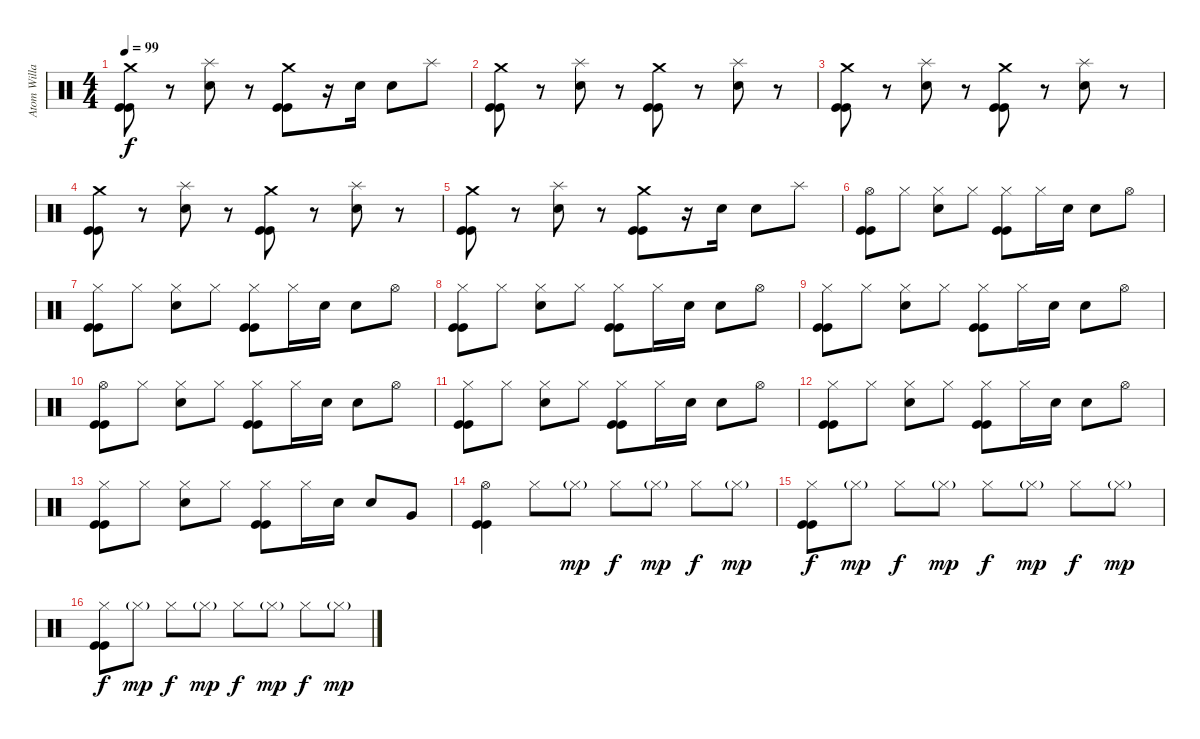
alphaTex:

\track ("Atom Willard" "Atom Willa") {instrument percussion}
\staff {score}
\articulation defaults
\ts (4 4)
\tempo 99
\clef neutral
\ks c
("Crash medium (hit)" "Kick (hit)" "Kick (hit)").8{dy f} r.8 ("Splash (hit)" "Electric Snare (hit)").8 r.8 ("Crash medium (hit)" "Kick (hit)" "Kick (hit)").8 r.16 "Electric Snare (hit)".16 "Electric Snare (hit)".8 "Splash (hit)".8 |
("Crash medium (hit)" "Kick (hit)" "Kick (hit)").8 r.8 ("Splash (hit)" "Electric Snare (hit)").8 r.8 ("Crash medium (hit)" "Kick (hit)" "Kick (hit)").8 r.8 ("Splash (hit)" "Electric Snare (hit)").8 r.8 |
("Crash medium (hit)" "Kick (hit)" "Kick (hit)").8 r.8 ("Splash (hit)" "Electric Snare (hit)").8 r.8 ("Crash medium (hit)" "Kick (hit)" "Kick (hit)").8 r.8 ("Splash (hit)" "Electric Snare (hit)").8 r.8 |
("Crash medium (hit)" "Kick (hit)" "Kick (hit)").8 r.8 ("Splash (hit)" "Electric Snare (hit)").8 r.8 ("Crash medium (hit)" "Kick (hit)" "Kick (hit)").8 r.8 ("Splash (hit)" "Electric Snare (hit)").8 r.8 |
("Crash medium (hit)" "Kick (hit)" "Kick (hit)").8 r.8 ("Splash (hit)" "Electric Snare (hit)").8 r.8 ("Crash medium (hit)" "Kick (hit)" "Kick (hit)").8 r.16 "Electric Snare (hit)".16 "Electric Snare (hit)".8 "Splash (hit)".8 |
("Hi-Hat (open)" "Kick (hit)" "Kick (hit)").8 "Hi-Hat (closed)".8 ("Hi-Hat (closed)" "Electric Snare (hit)").8 "Hi-Hat (closed)".8 ("Hi-Hat (closed)" "Kick (hit)" "Kick (hit)").8 "Hi-Hat (closed)".16 "Electric Snare (hit)".16 "Electric Snare (hit)".8 "Hi-Hat (open)".8 |
("Hi-Hat (closed)" "Kick (hit)" "Kick (hit)").8 "Hi-Hat (closed)".8 ("Hi-Hat (closed)" "Electric Snare (hit)").8 "Hi-Hat (closed)".8 ("Hi-Hat (closed)" "Kick (hit)" "Kick (hit)").8 "Hi-Hat (closed)".16 "Electric Snare (hit)".16 "Electric Snare (hit)".8 "Hi-Hat (open)".8 |
("Hi-Hat (closed)" "Kick (hit)" "Kick (hit)").8 "Hi-Hat (closed)".8 ("Hi-Hat (closed)" "Electric Snare (hit)").8 "Hi-Hat (closed)".8 ("Hi-Hat (closed)" "Kick (hit)" "Kick (hit)").8 "Hi-Hat (closed)".16 "Electric Snare (hit)".16 "Electric Snare (hit)".8 "Hi-Hat (open)".8 |
("Hi-Hat (closed)" "Kick (hit)" "Kick (hit)").8 "Hi-Hat (closed)".8 ("Hi-Hat (closed)" "Electric Snare (hit)").8 "Hi-Hat (closed)".8 ("Hi-Hat (closed)" "Kick (hit)" "Kick (hit)").8 "Hi-Hat (closed)".16 "Electric Snare (hit)".16 "Electric Snare (hit)".8 "Hi-Hat (open)".8 |
("Hi-Hat (open)" "Kick (hit)" "Kick (hit)").8 "Hi-Hat (closed)".8 ("Hi-Hat (closed)" "Electric Snare (hit)").8 "Hi-Hat (closed)".8 ("Hi-Hat (closed)" "Kick (hit)" "Kick (hit)").8 "Hi-Hat (closed)".16 "Electric Snare (hit)".16 "Electric Snare (hit)".8 "Hi-Hat (open)".8 |
("Hi-Hat (closed)" "Kick (hit)" "Kick (hit)").8 "Hi-Hat (closed)".8 ("Hi-Hat (closed)" "Electric Snare (hit)").8 "Hi-Hat (closed)".8 ("Hi-Hat (closed)" "Kick (hit)" "Kick (hit)").8 "Hi-Hat (closed)".16 "Electric Snare (hit)".16 "Electric Snare (hit)".8 "Hi-Hat (open)".8 |
("Hi-Hat (closed)" "Kick (hit)" "Kick (hit)").8 "Hi-Hat (closed)".8 ("Hi-Hat (closed)" "Electric Snare (hit)").8 "Hi-Hat (closed)".8 ("Hi-Hat (closed)" "Kick (hit)" "Kick (hit)").8 "Hi-Hat (closed)".16 "Electric Snare (hit)".16 "Electric Snare (hit)".8 "Hi-Hat (open)".8 |
("Hi-Hat (closed)" "Kick (hit)" "Kick (hit)").8 "Hi-Hat (closed)".8 ("Hi-Hat (closed)" "Electric Snare (hit)").8 "Hi-Hat (closed)".8 ("Hi-Hat (closed)" "Kick (hit)" "Kick (hit)").8 "Hi-Hat (closed)".16 "Electric Snare (hit)".16 "Electric Snare (hit)".8 "Very Low Tom (hit)".8 |
("Hi-Hat (open)" "Kick (hit)" "Kick (hit)").4 "Hi-Hat (closed)".8 "Hi-Hat (closed)"{g}.8{dy mp} "Hi-Hat (closed)".8{dy f} "Hi-Hat (closed)"{g}.8{dy mp} "Hi-Hat (closed)".8{dy f} "Hi-Hat (closed)"{g}.8{dy mp} |
("Hi-Hat (closed)" "Kick (hit)" "Kick (hit)").8{dy f} "Hi-Hat (closed)"{g}.8{dy mp} "Hi-Hat (closed)".8{dy f} "Hi-Hat (closed)"{g}.8{dy mp} "Hi-Hat (closed)".8{dy f} "Hi-Hat (closed)"{g}.8{dy mp} "Hi-Hat (closed)".8{dy f} "Hi-Hat (closed)"{g}.8{dy mp} |
("Hi-Hat (closed)" "Kick (hit)" "Kick (hit)").8{dy f} "Hi-Hat (closed)"{g}.8{dy mp} "Hi-Hat (closed)".8{dy f} "Hi-Hat (closed)"{g}.8{dy mp} "Hi-Hat (closed)".8{dy f} "Hi-Hat (closed)"{g}.8{dy mp} "Hi-Hat (closed)".8{dy f} "Hi-Hat (closed)"{g}.8{dy mp}
